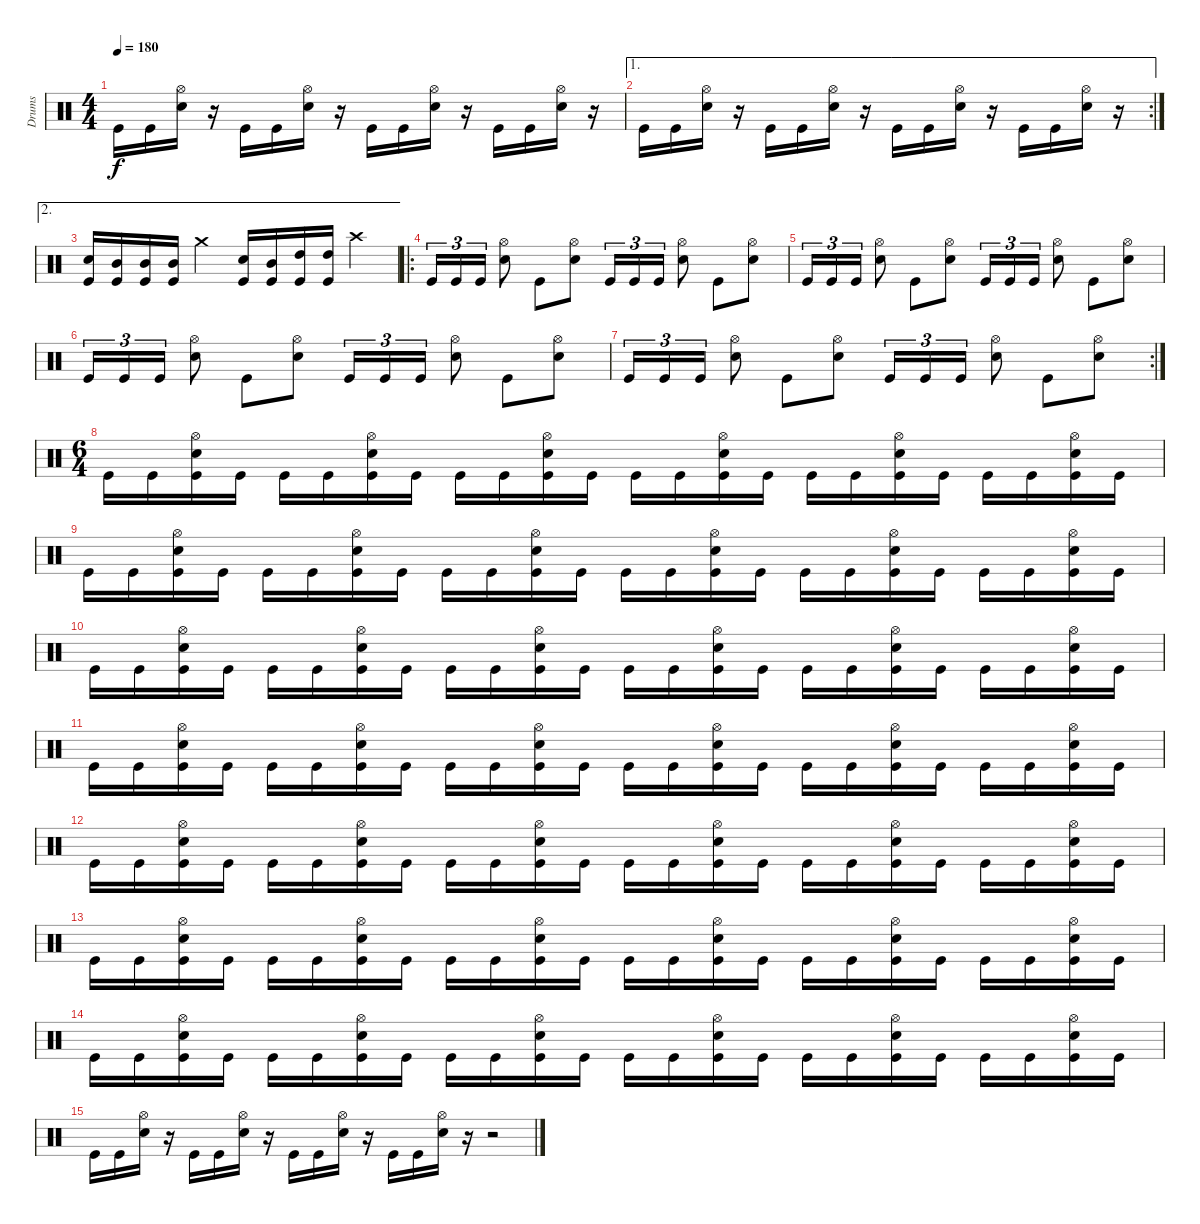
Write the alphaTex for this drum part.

\track ("Drums" "Drums") {instrument percussion}
\staff {score}
\articulation defaults
\ts (4 4)
\tempo 180
\clef neutral
\ks c "Kick (hit)".16{dy f} "Kick (hit)".16
("Electric Snare (hit)" "Hi-Hat (open)").16 r.16 "Kick (hit)".16 "Kick (hit)".16 ("Electric Snare (hit)" "Hi-Hat (open)").16 r.16 "Kick (hit)".16 "Kick (hit)".16 ("Electric Snare (hit)" "Hi-Hat (open)").16 r.16 "Kick (hit)".16 "Kick (hit)".16 ("Electric Snare (hit)" "Hi-Hat (open)").16 r.16 |
\ae 1
\rc 2 "Kick (hit)".16 "Kick (hit)".16
("Electric Snare (hit)" "Hi-Hat (open)").16 r.16 "Kick (hit)".16 "Kick (hit)".16 ("Electric Snare (hit)" "Hi-Hat (open)").16 r.16 "Kick (hit)".16 "Kick (hit)".16 ("Electric Snare (hit)" "Hi-Hat (open)").16 r.16 "Kick (hit)".16 "Kick (hit)".16 ("Electric Snare (hit)" "Hi-Hat (open)").16 r.16 |
\ae 2
("Kick (hit)" "Electric Snare (hit)").16 ("Kick (hit)" "Mid Tom (hit)").16 ("Kick (hit)" "Mid Tom (hit)").16 ("Kick (hit)" "Mid Tom (hit)").16 "Crash medium (hit)".4 ("Kick (hit)" "Electric Snare (hit)").16 ("Kick (hit)" "Mid Tom (hit)").16 ("Kick (hit)" "High Tom (hit)").16 ("Kick (hit)" "High Tom (hit)").16 "Crash high (hit)".4 |
\ro "Kick (hit)".16{tu (3 2)} "Kick (hit)".16{tu (3 2)} "Kick (hit)".16{tu (3 2)}
("Electric Snare (hit)" "Hi-Hat (open)").8 "Kick (hit)".8 ("Electric Snare (hit)" "Hi-Hat (open)").8 "Kick (hit)".16{tu (3 2)} "Kick (hit)".16{tu (3 2)} "Kick (hit)".16{tu (3 2)} ("Electric Snare (hit)" "Hi-Hat (open)").8 "Kick (hit)".8 ("Electric Snare (hit)" "Hi-Hat (open)").8 |
"Kick (hit)".16{tu (3 2)} "Kick (hit)".16{tu (3 2)} "Kick (hit)".16{tu (3 2)} ("Electric Snare (hit)" "Hi-Hat (open)").8 "Kick (hit)".8 ("Electric Snare (hit)" "Hi-Hat (open)").8 "Kick (hit)".16{tu (3 2)} "Kick (hit)".16{tu (3 2)} "Kick (hit)".16{tu (3 2)} ("Electric Snare (hit)" "Hi-Hat (open)").8 "Kick (hit)".8 ("Electric Snare (hit)" "Hi-Hat (open)").8 |
"Kick (hit)".16{tu (3 2)} "Kick (hit)".16{tu (3 2)} "Kick (hit)".16{tu (3 2)} ("Electric Snare (hit)" "Hi-Hat (open)").8 "Kick (hit)".8 ("Electric Snare (hit)" "Hi-Hat (open)").8 "Kick (hit)".16{tu (3 2)} "Kick (hit)".16{tu (3 2)} "Kick (hit)".16{tu (3 2)} ("Electric Snare (hit)" "Hi-Hat (open)").8 "Kick (hit)".8 ("Electric Snare (hit)" "Hi-Hat (open)").8 |
\rc 2 "Kick (hit)".16{tu (3 2)} "Kick (hit)".16{tu (3 2)} "Kick (hit)".16{tu (3 2)}
("Electric Snare (hit)" "Hi-Hat (open)").8 "Kick (hit)".8 ("Electric Snare (hit)" "Hi-Hat (open)").8 "Kick (hit)".16{tu (3 2)} "Kick (hit)".16{tu (3 2)} "Kick (hit)".16{tu (3 2)} ("Electric Snare (hit)" "Hi-Hat (open)").8 "Kick (hit)".8 ("Electric Snare (hit)" "Hi-Hat (open)").8 |
\ts (6 4)
"Kick (hit)".16 "Kick (hit)".16 ("Kick (hit)" "Electric Snare (hit)" "Hi-Hat (open)").16 "Kick (hit)".16 "Kick (hit)".16 "Kick (hit)".16 ("Kick (hit)" "Electric Snare (hit)" "Hi-Hat (open)").16 "Kick (hit)".16 "Kick (hit)".16 "Kick (hit)".16 ("Kick (hit)" "Electric Snare (hit)" "Hi-Hat (open)").16 "Kick (hit)".16 "Kick (hit)".16 "Kick (hit)".16 ("Kick (hit)" "Electric Snare (hit)" "Hi-Hat (open)").16 "Kick (hit)".16 "Kick (hit)".16 "Kick (hit)".16 ("Kick (hit)" "Electric Snare (hit)" "Hi-Hat (open)").16 "Kick (hit)".16 "Kick (hit)".16 "Kick (hit)".16 ("Kick (hit)" "Electric Snare (hit)" "Hi-Hat (open)").16 "Kick (hit)".16 |
"Kick (hit)".16 "Kick (hit)".16 ("Kick (hit)" "Electric Snare (hit)" "Hi-Hat (open)").16 "Kick (hit)".16 "Kick (hit)".16 "Kick (hit)".16 ("Kick (hit)" "Electric Snare (hit)" "Hi-Hat (open)").16 "Kick (hit)".16 "Kick (hit)".16 "Kick (hit)".16 ("Kick (hit)" "Electric Snare (hit)" "Hi-Hat (open)").16 "Kick (hit)".16 "Kick (hit)".16 "Kick (hit)".16 ("Kick (hit)" "Electric Snare (hit)" "Hi-Hat (open)").16 "Kick (hit)".16 "Kick (hit)".16 "Kick (hit)".16 ("Kick (hit)" "Electric Snare (hit)" "Hi-Hat (open)").16 "Kick (hit)".16 "Kick (hit)".16 "Kick (hit)".16 ("Kick (hit)" "Electric Snare (hit)" "Hi-Hat (open)").16 "Kick (hit)".16 |
"Kick (hit)".16 "Kick (hit)".16 ("Kick (hit)" "Electric Snare (hit)" "Hi-Hat (open)").16 "Kick (hit)".16 "Kick (hit)".16 "Kick (hit)".16 ("Kick (hit)" "Electric Snare (hit)" "Hi-Hat (open)").16 "Kick (hit)".16 "Kick (hit)".16 "Kick (hit)".16 ("Kick (hit)" "Electric Snare (hit)" "Hi-Hat (open)").16 "Kick (hit)".16 "Kick (hit)".16 "Kick (hit)".16 ("Kick (hit)" "Electric Snare (hit)" "Hi-Hat (open)").16 "Kick (hit)".16 "Kick (hit)".16 "Kick (hit)".16 ("Kick (hit)" "Electric Snare (hit)" "Hi-Hat (open)").16 "Kick (hit)".16 "Kick (hit)".16 "Kick (hit)".16 ("Kick (hit)" "Electric Snare (hit)" "Hi-Hat (open)").16 "Kick (hit)".16 |
"Kick (hit)".16 "Kick (hit)".16 ("Kick (hit)" "Electric Snare (hit)" "Hi-Hat (open)").16 "Kick (hit)".16 "Kick (hit)".16 "Kick (hit)".16 ("Kick (hit)" "Electric Snare (hit)" "Hi-Hat (open)").16 "Kick (hit)".16 "Kick (hit)".16 "Kick (hit)".16 ("Kick (hit)" "Electric Snare (hit)" "Hi-Hat (open)").16 "Kick (hit)".16 "Kick (hit)".16 "Kick (hit)".16 ("Kick (hit)" "Electric Snare (hit)" "Hi-Hat (open)").16 "Kick (hit)".16 "Kick (hit)".16 "Kick (hit)".16 ("Kick (hit)" "Electric Snare (hit)" "Hi-Hat (open)").16 "Kick (hit)".16 "Kick (hit)".16 "Kick (hit)".16 ("Kick (hit)" "Electric Snare (hit)" "Hi-Hat (open)").16 "Kick (hit)".16 |
"Kick (hit)".16 "Kick (hit)".16 ("Kick (hit)" "Electric Snare (hit)" "Hi-Hat (open)").16 "Kick (hit)".16 "Kick (hit)".16 "Kick (hit)".16 ("Kick (hit)" "Electric Snare (hit)" "Hi-Hat (open)").16 "Kick (hit)".16 "Kick (hit)".16 "Kick (hit)".16 ("Kick (hit)" "Electric Snare (hit)" "Hi-Hat (open)").16 "Kick (hit)".16 "Kick (hit)".16 "Kick (hit)".16 ("Kick (hit)" "Electric Snare (hit)" "Hi-Hat (open)").16 "Kick (hit)".16 "Kick (hit)".16 "Kick (hit)".16 ("Kick (hit)" "Electric Snare (hit)" "Hi-Hat (open)").16 "Kick (hit)".16 "Kick (hit)".16 "Kick (hit)".16 ("Kick (hit)" "Electric Snare (hit)" "Hi-Hat (open)").16 "Kick (hit)".16 |
"Kick (hit)".16 "Kick (hit)".16 ("Kick (hit)" "Electric Snare (hit)" "Hi-Hat (open)").16 "Kick (hit)".16 "Kick (hit)".16 "Kick (hit)".16 ("Kick (hit)" "Electric Snare (hit)" "Hi-Hat (open)").16 "Kick (hit)".16 "Kick (hit)".16 "Kick (hit)".16 ("Kick (hit)" "Electric Snare (hit)" "Hi-Hat (open)").16 "Kick (hit)".16 "Kick (hit)".16 "Kick (hit)".16 ("Kick (hit)" "Electric Snare (hit)" "Hi-Hat (open)").16 "Kick (hit)".16 "Kick (hit)".16 "Kick (hit)".16 ("Kick (hit)" "Electric Snare (hit)" "Hi-Hat (open)").16 "Kick (hit)".16 "Kick (hit)".16 "Kick (hit)".16 ("Kick (hit)" "Electric Snare (hit)" "Hi-Hat (open)").16 "Kick (hit)".16 |
"Kick (hit)".16 "Kick (hit)".16 ("Kick (hit)" "Electric Snare (hit)" "Hi-Hat (open)").16 "Kick (hit)".16 "Kick (hit)".16 "Kick (hit)".16 ("Kick (hit)" "Electric Snare (hit)" "Hi-Hat (open)").16 "Kick (hit)".16 "Kick (hit)".16 "Kick (hit)".16 ("Kick (hit)" "Electric Snare (hit)" "Hi-Hat (open)").16 "Kick (hit)".16 "Kick (hit)".16 "Kick (hit)".16 ("Kick (hit)" "Electric Snare (hit)" "Hi-Hat (open)").16 "Kick (hit)".16 "Kick (hit)".16 "Kick (hit)".16 ("Kick (hit)" "Electric Snare (hit)" "Hi-Hat (open)").16 "Kick (hit)".16 "Kick (hit)".16 "Kick (hit)".16 ("Kick (hit)" "Electric Snare (hit)" "Hi-Hat (open)").16 "Kick (hit)".16 |
"Kick (hit)".16 "Kick (hit)".16 ("Electric Snare (hit)" "Hi-Hat (open)").16 r.16 "Kick (hit)".16 "Kick (hit)".16 ("Electric Snare (hit)" "Hi-Hat (open)").16 r.16 "Kick (hit)".16 "Kick (hit)".16 ("Electric Snare (hit)" "Hi-Hat (open)").16 r.16 "Kick (hit)".16 "Kick (hit)".16 ("Electric Snare (hit)" "Hi-Hat (open)").16 r.16 r.2
